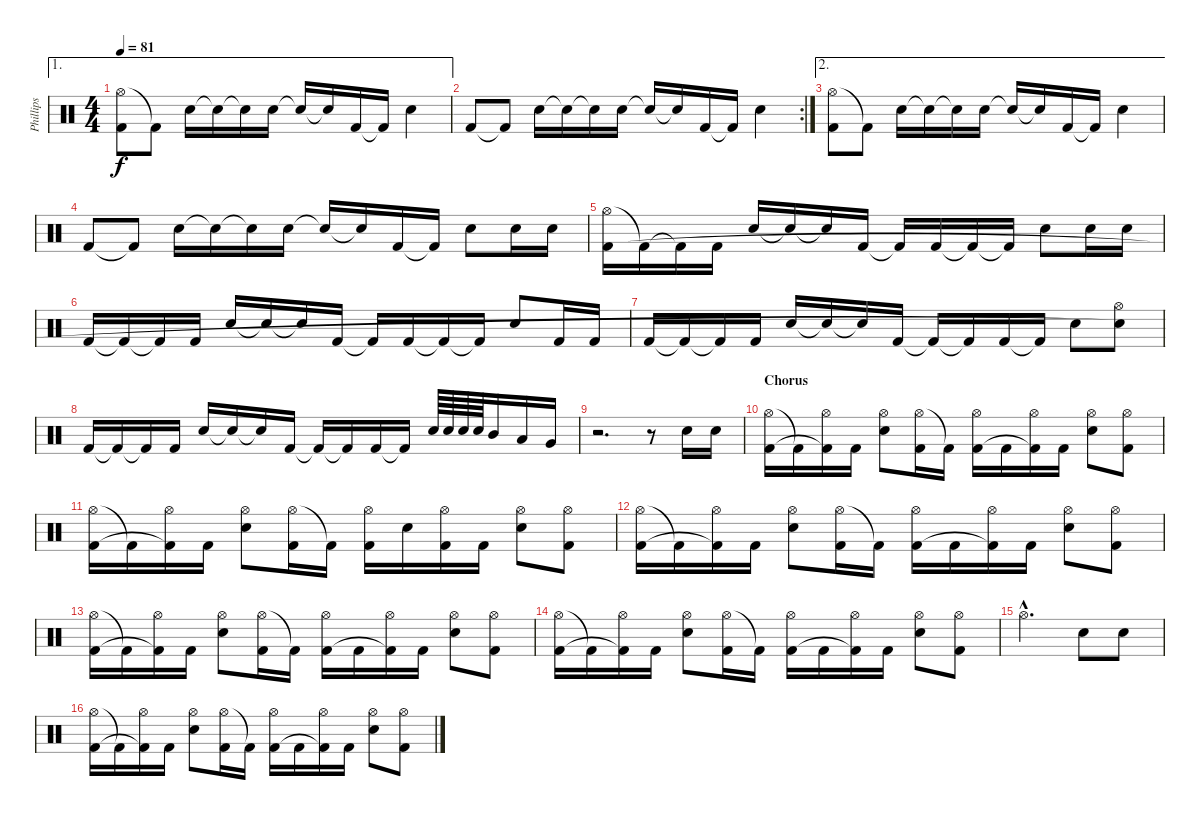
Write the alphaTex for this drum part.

\track ("Phillips" "Phillips") {instrument percussion}
\staff {score}
\articulation defaults
\ae 1
\ts (4 4)
\tempo 81
\clef neutral
\ks c
("Hi-Hat (open)" "Kick (hit) 2").8{dy f} "Kick (hit) 2"{t}.8 "Snare (hit) 2".16 "Snare (hit) 2"{t}.16 "Snare (hit) 2"{t}.16 "Snare (hit) 2".16 "Snare (hit) 2"{t}.16 "Snare (hit) 2"{t}.16 "Kick (hit) 2".16 "Kick (hit) 2"{t}.16 "Snare (hit) 2".4 |
\rc 2 "Kick (hit) 2".8 "Kick (hit) 2"{t}.8 "Snare (hit) 2".16 "Snare (hit) 2"{t}.16 "Snare (hit) 2"{t}.16 "Snare (hit) 2".16 "Snare (hit) 2"{t}.16 "Snare (hit) 2"{t}.16 "Kick (hit) 2".16 "Kick (hit) 2"{t}.16 "Snare (hit) 2".4
|
\ae 2
("Hi-Hat (open)" "Kick (hit) 2").8 "Kick (hit) 2"{t}.8 "Snare (hit) 2".16 "Snare (hit) 2"{t}.16 "Snare (hit) 2"{t}.16 "Snare (hit) 2".16 "Snare (hit) 2"{t}.16 "Snare (hit) 2"{t}.16 "Kick (hit) 2".16 "Kick (hit) 2"{t}.16 "Snare (hit) 2".4 |
"Kick (hit) 2".8 "Kick (hit) 2"{t}.8 "Snare (hit) 2".16 "Snare (hit) 2"{t}.16 "Snare (hit) 2"{t}.16 "Snare (hit) 2".16 "Snare (hit) 2"{t}.16 "Snare (hit) 2"{t}.16 "Kick (hit) 2".16 "Kick (hit) 2"{t}.16 "Snare (hit) 2".8 "Snare (hit) 2".16 "Snare (hit) 2".16 |
("Hi-Hat (open)" "Kick (hit) 2").16 "Kick (hit) 2"{t}.16 "Kick (hit) 2"{t}.16 "Kick (hit) 2".16 "Snare (hit) 2".16 "Snare (hit) 2"{t}.16 "Snare (hit) 2"{t}.16 "Kick (hit) 2".16 "Kick (hit) 2"{t}.16 "Kick (hit) 2".16 "Kick (hit) 2"{t}.16 "Kick (hit) 2"{t}.16 "Snare (hit) 2".8 "Snare (hit) 2".16 "Snare (hit) 2".16 |
"Kick (hit) 2".16 "Kick (hit) 2"{t}.16 "Kick (hit) 2"{t}.16 "Kick (hit) 2".16 "Snare (hit) 2".16 "Snare (hit) 2"{t}.16 "Snare (hit) 2"{t}.16 "Kick (hit) 2".16 "Kick (hit) 2"{t}.16 "Kick (hit) 2".16 "Kick (hit) 2"{t}.16 "Kick (hit) 2"{t}.16 "Snare (hit) 2".8 "Kick (hit) 2".16 "Kick (hit) 2".16 |
"Kick (hit) 2".16 "Kick (hit) 2"{t}.16 "Kick (hit) 2"{t}.16 "Kick (hit) 2".16 "Snare (hit) 2".16 "Snare (hit) 2"{t}.16 "Snare (hit) 2"{t}.16 "Kick (hit) 2".16 "Kick (hit) 2"{t}.16 "Kick (hit) 2"{t}.16 "Kick (hit) 2".16 "Kick (hit) 2"{t}.16 "Snare (hit) 2".8 ("Hi-Hat (open)" "Snare (hit) 2"{t}).8 |
"Kick (hit) 2".16 "Kick (hit) 2"{t}.16 "Kick (hit) 2"{t}.16 "Kick (hit) 2".16 "Snare (hit) 2".16 "Snare (hit) 2"{t}.16 "Snare (hit) 2"{t}.16 "Kick (hit) 2".16 "Kick (hit) 2"{t}.16 "Kick (hit) 2"{t}.16 "Kick (hit) 2".16 "Kick (hit) 2"{t}.16 "Snare (hit) 2".64 "Snare (hit) 2".64 "Snare (hit) 2".64 "Snare (hit) 2".64 "Mid Tom (hit)".16 "Low Tom (hit)".16 "Very Low Tom (hit)".16 |
r.2{d} r.8 "Snare (hit) 2".16 "Snare (hit) 2".16 |
\section ("" "Chorus")
("Hi-Hat (open)" "Kick (hit) 2").16 "Kick (hit) 2"{t}.16 ("Hi-Hat (open)" "Kick (hit) 2"{t}).16 "Kick (hit) 2".16 ("Hi-Hat (open)" "Snare (hit) 2").8 ("Hi-Hat (open)" "Kick (hit) 2").16 "Kick (hit) 2"{t}.16 ("Hi-Hat (open)" "Kick (hit) 2").16 "Kick (hit) 2".16 ("Hi-Hat (open)" "Kick (hit) 2"{t}).16 "Kick (hit) 2".16 ("Hi-Hat (open)" "Snare (hit) 2").8 ("Hi-Hat (open)" "Kick (hit) 2").8 |
("Hi-Hat (open)" "Kick (hit) 2").16 "Kick (hit) 2"{t}.16 ("Hi-Hat (open)" "Kick (hit) 2"{t}).16 "Kick (hit) 2".16 ("Hi-Hat (open)" "Snare (hit) 2").8 ("Hi-Hat (open)" "Kick (hit) 2").16 "Kick (hit) 2"{t}.16 ("Hi-Hat (open)" "Kick (hit) 2").16 "Snare (hit) 2".16 ("Hi-Hat (open)" "Kick (hit) 2").16 "Kick (hit) 2".16 ("Hi-Hat (open)" "Snare (hit) 2").8 ("Hi-Hat (open)" "Kick (hit) 2").8 |
("Hi-Hat (open)" "Kick (hit) 2").16 "Kick (hit) 2"{t}.16 ("Hi-Hat (open)" "Kick (hit) 2"{t}).16 "Kick (hit) 2".16 ("Hi-Hat (open)" "Snare (hit) 2").8 ("Hi-Hat (open)" "Kick (hit) 2").16 "Kick (hit) 2"{t}.16 ("Hi-Hat (open)" "Kick (hit) 2").16 "Kick (hit) 2".16 ("Hi-Hat (open)" "Kick (hit) 2"{t}).16 "Kick (hit) 2".16 ("Hi-Hat (open)" "Snare (hit) 2").8 ("Hi-Hat (open)" "Kick (hit) 2").8 |
("Hi-Hat (open)" "Kick (hit) 2").16 "Kick (hit) 2"{t}.16 ("Hi-Hat (open)" "Kick (hit) 2"{t}).16 "Kick (hit) 2".16 ("Hi-Hat (open)" "Snare (hit) 2").8 ("Hi-Hat (open)" "Kick (hit) 2").16 "Kick (hit) 2"{t}.16 ("Hi-Hat (open)" "Kick (hit) 2").16 "Kick (hit) 2".16 ("Hi-Hat (open)" "Kick (hit) 2"{t}).16 "Kick (hit) 2".16 ("Hi-Hat (open)" "Snare (hit) 2").8 ("Hi-Hat (open)" "Kick (hit) 2").8 |
("Hi-Hat (open)" "Kick (hit) 2").16 "Kick (hit) 2"{t}.16 ("Hi-Hat (open)" "Kick (hit) 2"{t}).16 "Kick (hit) 2".16 ("Hi-Hat (open)" "Snare (hit) 2").8 ("Hi-Hat (open)" "Kick (hit) 2").16 "Kick (hit) 2"{t}.16 ("Hi-Hat (open)" "Kick (hit) 2").16 "Kick (hit) 2".16 ("Hi-Hat (open)" "Kick (hit) 2"{t}).16 "Kick (hit) 2".16 ("Hi-Hat (open)" "Snare (hit) 2").8 ("Hi-Hat (open)" "Kick (hit) 2").8 |
"Hi-Hat (open)"{hac}.2{d} "Snare (hit) 2".8 "Snare (hit) 2".8 |
("Hi-Hat (open)" "Kick (hit) 2").16 "Kick (hit) 2"{t}.16 ("Hi-Hat (open)" "Kick (hit) 2"{t}).16 "Kick (hit) 2".16 ("Hi-Hat (open)" "Snare (hit) 2").8 ("Hi-Hat (open)" "Kick (hit) 2").16 "Kick (hit) 2"{t}.16 ("Hi-Hat (open)" "Kick (hit) 2").16 "Kick (hit) 2".16 ("Hi-Hat (open)" "Kick (hit) 2"{t}).16 "Kick (hit) 2".16 ("Hi-Hat (open)" "Snare (hit) 2").8 ("Hi-Hat (open)" "Kick (hit) 2").8
